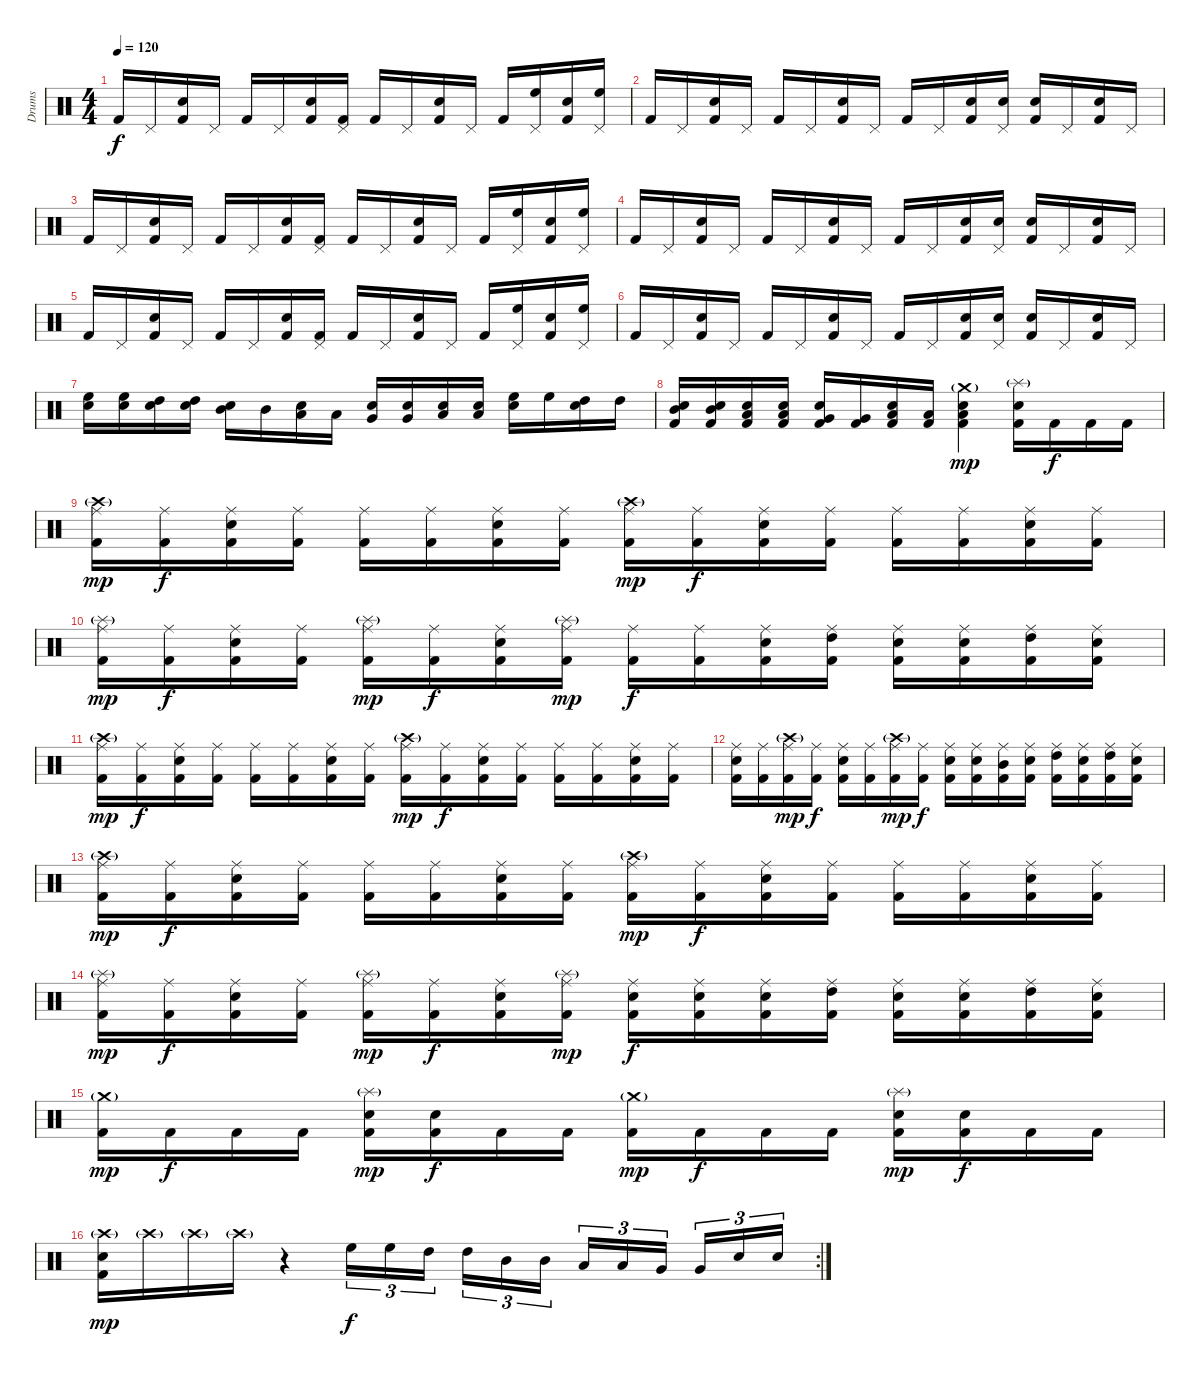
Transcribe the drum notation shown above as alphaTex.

\track ("Drums" "Drums") {instrument percussion}
\staff {score}
\articulation defaults
\ts (4 4)
\tempo 120
\clef neutral
\ks c "Kick (hit) 2".16{dy f} "Pedal Hi-Hat (hit)".16
("Electric Snare (hit)" "Kick (hit) 2").16 "Pedal Hi-Hat (hit)".16 "Kick (hit) 2".16 "Pedal Hi-Hat (hit)".16 ("Electric Snare (hit)" "Kick (hit) 2").16 ("Pedal Hi-Hat (hit)" "Kick (hit) 2").16 "Kick (hit) 2".16 "Pedal Hi-Hat (hit)".16 ("Electric Snare (hit)" "Kick (hit) 2").16 "Pedal Hi-Hat (hit)".16 "Kick (hit) 2".16 ("Pedal Hi-Hat (hit)" "High Floor Tom (hit)").16 ("Electric Snare (hit)" "Kick (hit) 2").16 ("Pedal Hi-Hat (hit)" "High Floor Tom (hit)").16 |
"Kick (hit) 2".16 "Pedal Hi-Hat (hit)".16 ("Electric Snare (hit)" "Kick (hit) 2").16 "Pedal Hi-Hat (hit)".16 "Kick (hit) 2".16 "Pedal Hi-Hat (hit)".16 ("Electric Snare (hit)" "Kick (hit) 2").16 "Pedal Hi-Hat (hit)".16 "Kick (hit) 2".16 "Pedal Hi-Hat (hit)".16 ("Electric Snare (hit)" "Kick (hit) 2").16 ("Pedal Hi-Hat (hit)" "Electric Snare (hit)").16 ("Electric Snare (hit)" "Kick (hit) 2").16 "Pedal Hi-Hat (hit)".16 ("Electric Snare (hit)" "Kick (hit) 2").16 "Pedal Hi-Hat (hit)".16 |
"Kick (hit) 2".16 "Pedal Hi-Hat (hit)".16 ("Electric Snare (hit)" "Kick (hit) 2").16 "Pedal Hi-Hat (hit)".16 "Kick (hit) 2".16 "Pedal Hi-Hat (hit)".16 ("Electric Snare (hit)" "Kick (hit) 2").16 ("Pedal Hi-Hat (hit)" "Kick (hit) 2").16 "Kick (hit) 2".16 "Pedal Hi-Hat (hit)".16 ("Electric Snare (hit)" "Kick (hit) 2").16 "Pedal Hi-Hat (hit)".16 "Kick (hit) 2".16 ("Pedal Hi-Hat (hit)" "High Floor Tom (hit)").16 ("Electric Snare (hit)" "Kick (hit) 2").16 ("Pedal Hi-Hat (hit)" "High Floor Tom (hit)").16 |
"Kick (hit) 2".16 "Pedal Hi-Hat (hit)".16 ("Electric Snare (hit)" "Kick (hit) 2").16 "Pedal Hi-Hat (hit)".16 "Kick (hit) 2".16 "Pedal Hi-Hat (hit)".16 ("Electric Snare (hit)" "Kick (hit) 2").16 "Pedal Hi-Hat (hit)".16 "Kick (hit) 2".16 "Pedal Hi-Hat (hit)".16 ("Electric Snare (hit)" "Kick (hit) 2").16 ("Pedal Hi-Hat (hit)" "Electric Snare (hit)").16 ("Electric Snare (hit)" "Kick (hit) 2").16 "Pedal Hi-Hat (hit)".16 ("Electric Snare (hit)" "Kick (hit) 2").16 "Pedal Hi-Hat (hit)".16 |
"Kick (hit) 2".16 "Pedal Hi-Hat (hit)".16 ("Electric Snare (hit)" "Kick (hit) 2").16 "Pedal Hi-Hat (hit)".16 "Kick (hit) 2".16 "Pedal Hi-Hat (hit)".16 ("Electric Snare (hit)" "Kick (hit) 2").16 ("Pedal Hi-Hat (hit)" "Kick (hit) 2").16 "Kick (hit) 2".16 "Pedal Hi-Hat (hit)".16 ("Electric Snare (hit)" "Kick (hit) 2").16 "Pedal Hi-Hat (hit)".16 "Kick (hit) 2".16 ("Pedal Hi-Hat (hit)" "High Floor Tom (hit)").16 ("Electric Snare (hit)" "Kick (hit) 2").16 ("Pedal Hi-Hat (hit)" "High Floor Tom (hit)").16 |
"Kick (hit) 2".16 "Pedal Hi-Hat (hit)".16 ("Electric Snare (hit)" "Kick (hit) 2").16 "Pedal Hi-Hat (hit)".16 "Kick (hit) 2".16 "Pedal Hi-Hat (hit)".16 ("Electric Snare (hit)" "Kick (hit) 2").16 "Pedal Hi-Hat (hit)".16 "Kick (hit) 2".16 "Pedal Hi-Hat (hit)".16 ("Electric Snare (hit)" "Kick (hit) 2").16 ("Pedal Hi-Hat (hit)" "Electric Snare (hit)").16 ("Electric Snare (hit)" "Kick (hit) 2").16 "Pedal Hi-Hat (hit)".16 ("Electric Snare (hit)" "Kick (hit) 2").16 "Pedal Hi-Hat (hit)".16 |
("Electric Snare (hit)" "High Floor Tom (hit)").16 ("Electric Snare (hit)" "High Floor Tom (hit)").16 ("Electric Snare (hit)" "High Tom (hit)").16 ("Electric Snare (hit)" "High Tom (hit)").16 ("Electric Snare (hit)" "Mid Tom (hit)").16 "Mid Tom (hit)".16 ("Electric Snare (hit)" "Low Tom (hit)").16 "Low Tom (hit)".16 ("Electric Snare (hit)" "Very Low Tom (hit)").16 ("Electric Snare (hit)" "Very Low Tom (hit)").16 ("Electric Snare (hit)" "Low Floor Tom (hit)").16 ("Electric Snare (hit)" "Low Floor Tom (hit)").16 ("Electric Snare (hit)" "High Floor Tom (hit)").16 "High Floor Tom (hit)".16 ("Electric Snare (hit)" "High Tom (hit)").16 "High Tom (hit)".16 |
("Electric Snare (hit)" "Mid Tom (hit)" "Kick (hit) 2").16 ("Electric Snare (hit)" "Mid Tom (hit)" "Kick (hit) 2").16 ("Electric Snare (hit)" "Low Tom (hit)" "Kick (hit) 2").16 ("Electric Snare (hit)" "Low Tom (hit)" "Kick (hit) 2").16 ("Electric Snare (hit)" "Very Low Tom (hit)" "Kick (hit) 2").16 ("Very Low Tom (hit)" "Kick (hit) 2").16 ("Electric Snare (hit)" "Low Floor Tom (hit)" "Kick (hit) 2").16 ("Low Floor Tom (hit)" "Kick (hit) 2").16 ("Crash medium (hit)"{g} "Electric Snare (hit)" "Low Tom (hit)" "Kick (hit) 2").4{dy mp} ("Splash (hit)"{g} "Electric Snare (hit)" "Kick (hit) 2").16 "Kick (hit) 2".16{dy f} "Kick (hit) 2".16 "Kick (hit) 2".16 |
("Crash high (hit)"{g} "Ride (middle)" "Kick (hit) 2").16{dy mp} ("Ride (middle)" "Kick (hit) 2").16{dy f} ("Electric Snare (hit)" "Ride (middle)" "Kick (hit) 2").16 ("Ride (middle)" "Kick (hit) 2").16 ("Ride (middle)" "Kick (hit) 2").16 ("Ride (middle)" "Kick (hit) 2").16 ("Electric Snare (hit)" "Ride (middle)" "Kick (hit) 2").16 ("Ride (middle)" "Kick (hit) 2").16 ("Crash high (hit)"{g} "Ride (middle)" "Kick (hit) 2").16{dy mp} ("Ride (middle)" "Kick (hit) 2").16{dy f} ("Electric Snare (hit)" "Ride (middle)" "Kick (hit) 2").16 ("Ride (middle)" "Kick (hit) 2").16 ("Ride (middle)" "Kick (hit) 2").16 ("Ride (middle)" "Kick (hit) 2").16 ("Electric Snare (hit)" "Ride (middle)" "Kick (hit) 2").16 ("Ride (middle)" "Kick (hit) 2").16 |
("Splash (hit)"{g} "Ride (middle)" "Kick (hit) 2").16{dy mp} ("Ride (middle)" "Kick (hit) 2").16{dy f} ("Electric Snare (hit)" "Ride (middle)" "Kick (hit) 2").16 ("Ride (middle)" "Kick (hit) 2").16 ("Splash (hit)"{g} "Ride (middle)" "Kick (hit) 2").16{dy mp} ("Ride (middle)" "Kick (hit) 2").16{dy f} ("Electric Snare (hit)" "Ride (middle)" "Kick (hit) 2").16 ("Splash (hit)"{g} "Ride (middle)" "Kick (hit) 2").16{dy mp} ("Ride (middle)" "Kick (hit) 2").16{dy f} ("Ride (middle)" "Kick (hit) 2").16 ("Electric Snare (hit)" "Ride (middle)" "Kick (hit) 2").16 ("High Tom (hit)" "Ride (middle)" "Kick (hit) 2").16 ("Electric Snare (hit)" "Ride (middle)" "Kick (hit) 2").16 ("Electric Snare (hit)" "Ride (middle)" "Kick (hit) 2").16 ("High Tom (hit)" "Ride (middle)" "Kick (hit) 2").16 ("Electric Snare (hit)" "Ride (middle)" "Kick (hit) 2").16 |
("Crash high (hit)"{g} "Ride (middle)" "Kick (hit) 2").16{dy mp} ("Ride (middle)" "Kick (hit) 2").16{dy f} ("Electric Snare (hit)" "Ride (middle)" "Kick (hit) 2").16 ("Ride (middle)" "Kick (hit) 2").16 ("Ride (middle)" "Kick (hit) 2").16 ("Ride (middle)" "Kick (hit) 2").16 ("Electric Snare (hit)" "Ride (middle)" "Kick (hit) 2").16 ("Ride (middle)" "Kick (hit) 2").16 ("Crash high (hit)"{g} "Ride (middle)" "Kick (hit) 2").16{dy mp} ("Ride (middle)" "Kick (hit) 2").16{dy f} ("Electric Snare (hit)" "Ride (middle)" "Kick (hit) 2").16 ("Ride (middle)" "Kick (hit) 2").16 ("Ride (middle)" "Kick (hit) 2").16 ("Ride (middle)" "Kick (hit) 2").16 ("Electric Snare (hit)" "Ride (middle)" "Kick (hit) 2").16 ("Ride (middle)" "Kick (hit) 2").16 |
("Electric Snare (hit)" "Ride (middle)" "Kick (hit) 2").16 ("Ride (middle)" "Kick (hit) 2").16 ("Crash high (hit)"{g} "Ride (middle)" "Kick (hit) 2").16{dy mp} ("Ride (middle)" "Kick (hit) 2").16{dy f} ("Electric Snare (hit)" "Ride (middle)" "Kick (hit) 2").16 ("Ride (middle)" "Kick (hit) 2").16 ("Crash high (hit)"{g} "Ride (middle)" "Kick (hit) 2").16{dy mp} ("Ride (middle)" "Kick (hit) 2").16{dy f} ("Electric Snare (hit)" "Ride (middle)" "Kick (hit) 2").16 ("Electric Snare (hit)" "Ride (middle)" "Kick (hit) 2").16 ("Mid Tom (hit)" "Ride (middle)" "Kick (hit) 2").16 ("Electric Snare (hit)" "Ride (middle)" "Kick (hit) 2").16 ("High Tom (hit)" "Ride (middle)" "Kick (hit) 2").16 ("Electric Snare (hit)" "Ride (middle)" "Kick (hit) 2").16 ("High Tom (hit)" "Ride (middle)" "Kick (hit) 2").16 ("Electric Snare (hit)" "Ride (middle)" "Kick (hit) 2").16 |
("Crash high (hit)"{g} "Ride (middle)" "Kick (hit) 2").16{dy mp} ("Ride (middle)" "Kick (hit) 2").16{dy f} ("Electric Snare (hit)" "Ride (middle)" "Kick (hit) 2").16 ("Ride (middle)" "Kick (hit) 2").16 ("Ride (middle)" "Kick (hit) 2").16 ("Ride (middle)" "Kick (hit) 2").16 ("Electric Snare (hit)" "Ride (middle)" "Kick (hit) 2").16 ("Ride (middle)" "Kick (hit) 2").16 ("Crash high (hit)"{g} "Ride (middle)" "Kick (hit) 2").16{dy mp} ("Ride (middle)" "Kick (hit) 2").16{dy f} ("Electric Snare (hit)" "Ride (middle)" "Kick (hit) 2").16 ("Ride (middle)" "Kick (hit) 2").16 ("Ride (middle)" "Kick (hit) 2").16 ("Ride (middle)" "Kick (hit) 2").16 ("Electric Snare (hit)" "Ride (middle)" "Kick (hit) 2").16 ("Ride (middle)" "Kick (hit) 2").16 |
("Splash (hit)"{g} "Ride (middle)" "Kick (hit) 2").16{dy mp} ("Ride (middle)" "Kick (hit) 2").16{dy f} ("Electric Snare (hit)" "Ride (middle)" "Kick (hit) 2").16 ("Ride (middle)" "Kick (hit) 2").16 ("Splash (hit)"{g} "Ride (middle)" "Kick (hit) 2").16{dy mp} ("Ride (middle)" "Kick (hit) 2").16{dy f} ("Electric Snare (hit)" "Ride (middle)" "Kick (hit) 2").16 ("Splash (hit)"{g} "Ride (middle)" "Kick (hit) 2").16{dy mp} ("Electric Snare (hit)" "Ride (middle)" "Kick (hit) 2").16{dy f} ("Electric Snare (hit)" "Ride (middle)" "Kick (hit) 2").16 ("Electric Snare (hit)" "Ride (middle)" "Kick (hit) 2").16 ("High Tom (hit)" "Ride (middle)" "Kick (hit) 2").16 ("Electric Snare (hit)" "Ride (middle)" "Kick (hit) 2").16 ("Electric Snare (hit)" "Ride (middle)" "Kick (hit) 2").16 ("High Tom (hit)" "Ride (middle)" "Kick (hit) 2").16 ("Electric Snare (hit)" "Ride (middle)" "Kick (hit) 2").16 |
("Crash medium (hit)"{g} "Kick (hit) 2").16{dy mp} "Kick (hit) 2".16{dy f} "Kick (hit) 2".16 "Kick (hit) 2".16 ("Splash (hit)"{g} "Electric Snare (hit)" "Kick (hit) 2").16{dy mp} ("Electric Snare (hit)" "Kick (hit) 2").16{dy f} "Kick (hit) 2".16 "Kick (hit) 2".16 ("Crash medium (hit)"{g} "Kick (hit) 2").16{dy mp} "Kick (hit) 2".16{dy f} "Kick (hit) 2".16 "Kick (hit) 2".16 ("Splash (hit)"{g} "Electric Snare (hit)" "Kick (hit) 2").16{dy mp} ("Electric Snare (hit)" "Kick (hit) 2").16{dy f} "Kick (hit) 2".16 "Kick (hit) 2".16 |
\rc 2
("Crash high (hit)"{g} "Electric Snare (hit)" "Kick (hit) 2").16{dy mp} "Crash high (hit)"{g}.16 "Crash high (hit)"{g}.16 "Crash high (hit)"{g}.16 r.4 "High Floor Tom (hit)".16{tu (3 2) dy f} "High Floor Tom (hit)".16{tu (3 2)} "High Tom (hit)".16{tu (3 2)} "High Tom (hit)".16{tu (3 2)} "Mid Tom (hit)".16{tu (3 2)} "Mid Tom (hit)".16{tu (3 2)} "Low Tom (hit)".16{tu (3 2)} "Low Tom (hit)".16{tu (3 2)} "Very Low Tom (hit)".16{tu (3 2)} "Very Low Tom (hit)".16{tu (3 2)} "Electric Snare (hit)".16{tu (3 2)} "Electric Snare (hit)".16{tu (3 2)}
